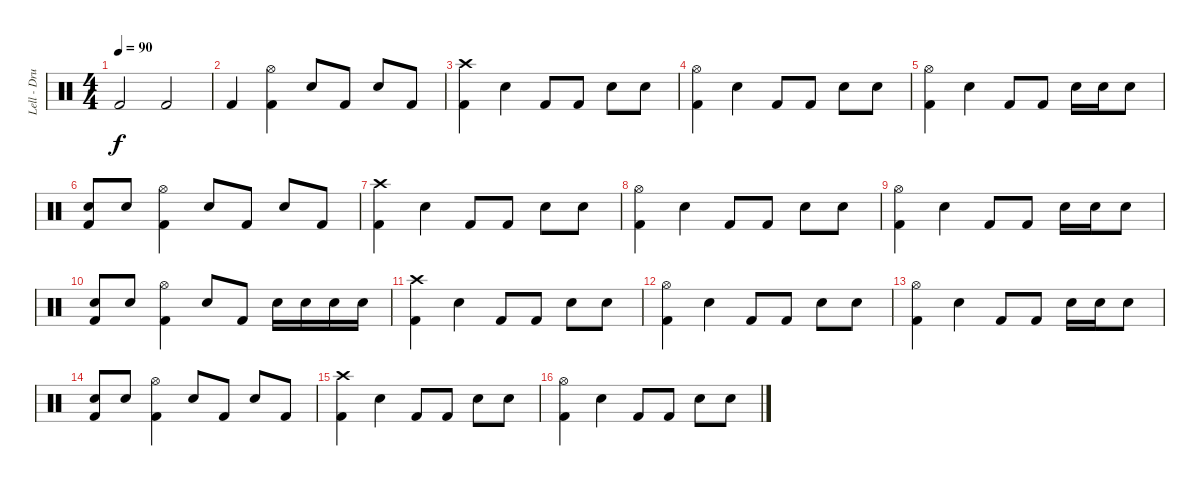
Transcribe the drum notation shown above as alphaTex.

\track ("Lell - Drums" "Lell - Dru") {instrument percussion}
\staff {score}
\articulation defaults
\ts (4 4)
\tempo 90
\clef neutral
\ks c "Kick (hit) 2".2{dy f} "Kick (hit) 2".2
|
"Kick (hit) 2".4 ("Hi-Hat (open)" "Kick (hit) 2").4 "Snare (hit) 2".8 "Kick (hit) 2".8 "Snare (hit) 2".8 "Kick (hit) 2".8 |
("Crash high (hit)" "Kick (hit) 2").4 "Snare (hit) 2".4 "Kick (hit) 2".8 "Kick (hit) 2".8 "Snare (hit) 2".8 "Snare (hit) 2".8 |
("Hi-Hat (open)" "Kick (hit) 2").4 "Snare (hit) 2".4 "Kick (hit) 2".8 "Kick (hit) 2".8 "Snare (hit) 2".8 "Snare (hit) 2".8 |
("Hi-Hat (open)" "Kick (hit) 2").4 "Snare (hit) 2".4 "Kick (hit) 2".8 "Kick (hit) 2".8 "Snare (hit) 2".16 "Snare (hit) 2".16 "Snare (hit) 2".8 |
("Snare (hit) 2" "Kick (hit) 2").8 "Snare (hit) 2".8 ("Hi-Hat (open)" "Kick (hit) 2").4 "Snare (hit) 2".8 "Kick (hit) 2".8 "Snare (hit) 2".8 "Kick (hit) 2".8 |
("Crash high (hit)" "Kick (hit) 2").4 "Snare (hit) 2".4 "Kick (hit) 2".8 "Kick (hit) 2".8 "Snare (hit) 2".8 "Snare (hit) 2".8 |
("Hi-Hat (open)" "Kick (hit) 2").4 "Snare (hit) 2".4 "Kick (hit) 2".8 "Kick (hit) 2".8 "Snare (hit) 2".8 "Snare (hit) 2".8 |
("Hi-Hat (open)" "Kick (hit) 2").4 "Snare (hit) 2".4 "Kick (hit) 2".8 "Kick (hit) 2".8 "Snare (hit) 2".16 "Snare (hit) 2".16 "Snare (hit) 2".8 |
("Snare (hit) 2" "Kick (hit) 2").8 "Snare (hit) 2".8 ("Hi-Hat (open)" "Kick (hit) 2").4 "Snare (hit) 2".8 "Kick (hit) 2".8 "Snare (hit) 2".16 "Snare (hit) 2".16 "Snare (hit) 2".16 "Snare (hit) 2".16 |
("Crash high (hit)" "Kick (hit) 2").4 "Snare (hit) 2".4 "Kick (hit) 2".8 "Kick (hit) 2".8 "Snare (hit) 2".8 "Snare (hit) 2".8 |
("Hi-Hat (open)" "Kick (hit) 2").4 "Snare (hit) 2".4 "Kick (hit) 2".8 "Kick (hit) 2".8 "Snare (hit) 2".8 "Snare (hit) 2".8 |
("Hi-Hat (open)" "Kick (hit) 2").4 "Snare (hit) 2".4 "Kick (hit) 2".8 "Kick (hit) 2".8 "Snare (hit) 2".16 "Snare (hit) 2".16 "Snare (hit) 2".8 |
("Snare (hit) 2" "Kick (hit) 2").8 "Snare (hit) 2".8 ("Hi-Hat (open)" "Kick (hit) 2").4 "Snare (hit) 2".8 "Kick (hit) 2".8 "Snare (hit) 2".8 "Kick (hit) 2".8 |
("Crash high (hit)" "Kick (hit) 2").4 "Snare (hit) 2".4 "Kick (hit) 2".8 "Kick (hit) 2".8 "Snare (hit) 2".8 "Snare (hit) 2".8 |
("Hi-Hat (open)" "Kick (hit) 2").4 "Snare (hit) 2".4 "Kick (hit) 2".8 "Kick (hit) 2".8 "Snare (hit) 2".8 "Snare (hit) 2".8
